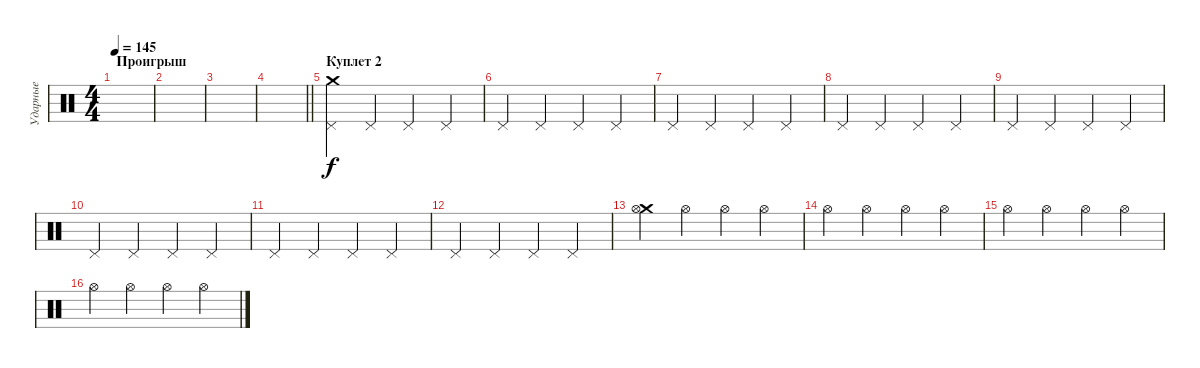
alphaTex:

\track ("Ударные" "Ударные") {instrument percussion}
\staff {score}
\articulation defaults
\ts (4 4)
\section ("" "Проигрыш")
\tempo 145
\clef neutral
\ks c
|
|
|
\barLineRight lightlight
|
\section ("" "Куплет 2")
("Crash medium (hit)" "Pedal Hi-Hat (hit)").4 "Pedal Hi-Hat (hit)".4 "Pedal Hi-Hat (hit)".4 "Pedal Hi-Hat (hit)".4 |
"Pedal Hi-Hat (hit)".4 "Pedal Hi-Hat (hit)".4 "Pedal Hi-Hat (hit)".4 "Pedal Hi-Hat (hit)".4 |
"Pedal Hi-Hat (hit)".4 "Pedal Hi-Hat (hit)".4 "Pedal Hi-Hat (hit)".4 "Pedal Hi-Hat (hit)".4 |
"Pedal Hi-Hat (hit)".4 "Pedal Hi-Hat (hit)".4 "Pedal Hi-Hat (hit)".4 "Pedal Hi-Hat (hit)".4 |
"Pedal Hi-Hat (hit)".4 "Pedal Hi-Hat (hit)".4 "Pedal Hi-Hat (hit)".4 "Pedal Hi-Hat (hit)".4 |
"Pedal Hi-Hat (hit)".4 "Pedal Hi-Hat (hit)".4 "Pedal Hi-Hat (hit)".4 "Pedal Hi-Hat (hit)".4 |
"Pedal Hi-Hat (hit)".4 "Pedal Hi-Hat (hit)".4 "Pedal Hi-Hat (hit)".4 "Pedal Hi-Hat (hit)".4 |
"Pedal Hi-Hat (hit)".4 "Pedal Hi-Hat (hit)".4 "Pedal Hi-Hat (hit)".4 "Pedal Hi-Hat (hit)".4 |
("Crash medium (hit)" "Hi-Hat (open)").4 "Hi-Hat (open)".4 "Hi-Hat (open)".4 "Hi-Hat (open)".4 |
"Hi-Hat (open)".4 "Hi-Hat (open)".4 "Hi-Hat (open)".4 "Hi-Hat (open)".4 |
"Hi-Hat (open)".4 "Hi-Hat (open)".4 "Hi-Hat (open)".4 "Hi-Hat (open)".4 |
"Hi-Hat (open)".4 "Hi-Hat (open)".4 "Hi-Hat (open)".4 "Hi-Hat (open)".4
